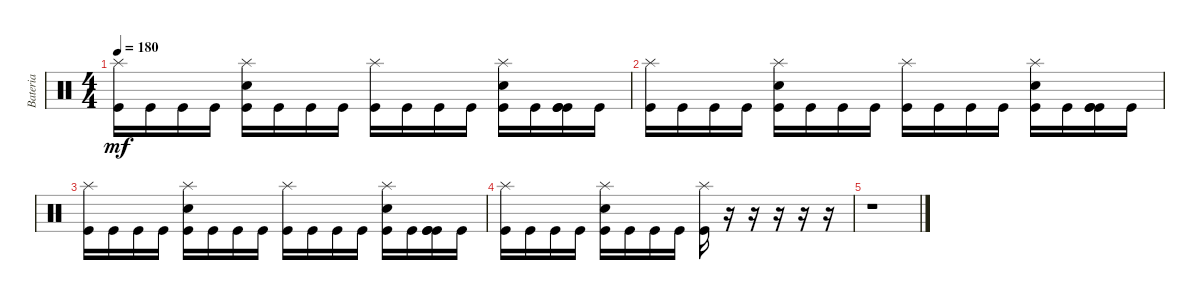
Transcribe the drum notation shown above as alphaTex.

\track ("Bateria" "Bateria") {instrument percussion}
\staff {score}
\articulation defaults
\ts (4 4)
\tempo 180
\clef neutral
\ks c
("Splash (hit)" "Kick (hit)").16{dy mf} "Kick (hit)".16 "Kick (hit)".16 "Kick (hit)".16 ("Snare (hit) 2" "Kick (hit)" "Splash (hit)").16 "Kick (hit)".16 "Kick (hit)".16 "Kick (hit)".16 ("Splash (hit)" "Kick (hit)").16 "Kick (hit)".16 "Kick (hit)".16 "Kick (hit)".16 ("Splash (hit)" "Snare (hit) 2" "Kick (hit)").16 "Kick (hit)".16 ("Kick (hit)" "Kick (hit)" "Kick (hit)").16 "Kick (hit)".16 |
("Splash (hit)" "Kick (hit)").16 "Kick (hit)".16 "Kick (hit)".16 "Kick (hit)".16 ("Kick (hit)" "Splash (hit)" "Snare (hit) 2").16 "Kick (hit)".16 "Kick (hit)".16 "Kick (hit)".16 ("Splash (hit)" "Kick (hit)").16 "Kick (hit)".16 "Kick (hit)".16 "Kick (hit)".16 ("Snare (hit) 2" "Kick (hit)" "Splash (hit)").16 "Kick (hit)".16 ("Kick (hit)" "Kick (hit)" "Kick (hit)").16 "Kick (hit)".16 |
("Kick (hit)" "Splash (hit)").16 "Kick (hit)".16 "Kick (hit)".16 "Kick (hit)".16 ("Kick (hit)" "Splash (hit)" "Snare (hit) 2").16 "Kick (hit)".16 "Kick (hit)".16 "Kick (hit)".16 ("Kick (hit)" "Splash (hit)").16 "Kick (hit)".16 "Kick (hit)".16 "Kick (hit)".16 ("Kick (hit)" "Splash (hit)" "Snare (hit) 2").16 "Kick (hit)".16 ("Kick (hit)" "Kick (hit)" "Kick (hit)").16 "Kick (hit)".16 |
("Kick (hit)" "Splash (hit)").16 "Kick (hit)".16 "Kick (hit)".16 "Kick (hit)".16 ("Splash (hit)" "Kick (hit)" "Snare (hit) 2").16 "Kick (hit)".16 "Kick (hit)".16 "Kick (hit)".16 ("Splash (hit)" "Kick (hit)").16 r.16 r.16 r.16 r.16 r.16 |
r.1
